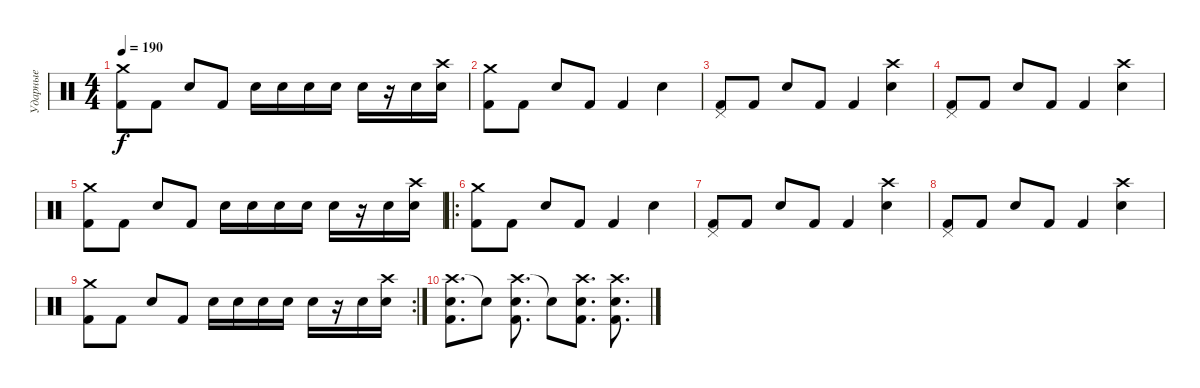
\track ("Ударные" "Ударные") {instrument percussion}
\staff {score}
\articulation defaults
\ts (4 4)
\tempo 190
\clef neutral
\ks c
("Crash medium (hit)" "Kick (hit) 2").8{dy f} "Kick (hit) 2".8 "Electric Snare (hit)".8 "Kick (hit) 2".8 "Electric Snare (hit)".16 "Electric Snare (hit)".16 "Electric Snare (hit)".16 "Electric Snare (hit)".16 "Electric Snare (hit)".16 r.16 "Electric Snare (hit)".16 ("Electric Snare (hit)" "Crash high (hit)").16 |
("Crash medium (hit)" "Kick (hit) 2").8 "Kick (hit) 2".8 "Electric Snare (hit)".8 "Kick (hit) 2".8 "Kick (hit) 2".4 "Electric Snare (hit)".4 |
("Pedal Hi-Hat (hit)" "Kick (hit) 2").8 "Kick (hit) 2".8 "Electric Snare (hit)".8 "Kick (hit) 2".8 "Kick (hit) 2".4 ("Crash high (hit)" "Electric Snare (hit)").4 |
("Pedal Hi-Hat (hit)" "Kick (hit) 2").8 "Kick (hit) 2".8 "Electric Snare (hit)".8 "Kick (hit) 2".8 "Kick (hit) 2".4 ("Crash high (hit)" "Electric Snare (hit)").4 |
("Crash medium (hit)" "Kick (hit) 2").8 "Kick (hit) 2".8 "Electric Snare (hit)".8 "Kick (hit) 2".8 "Electric Snare (hit)".16 "Electric Snare (hit)".16 "Electric Snare (hit)".16 "Electric Snare (hit)".16 "Electric Snare (hit)".16 r.16 "Electric Snare (hit)".16 ("Electric Snare (hit)" "Crash high (hit)").16 |
\ro
("Crash medium (hit)" "Kick (hit) 2").8 "Kick (hit) 2".8 "Electric Snare (hit)".8 "Kick (hit) 2".8 "Kick (hit) 2".4 "Electric Snare (hit)".4 |
("Pedal Hi-Hat (hit)" "Kick (hit) 2").8 "Kick (hit) 2".8 "Electric Snare (hit)".8 "Kick (hit) 2".8 "Kick (hit) 2".4 ("Crash high (hit)" "Electric Snare (hit)").4 |
("Pedal Hi-Hat (hit)" "Kick (hit) 2").8 "Kick (hit) 2".8 "Electric Snare (hit)".8 "Kick (hit) 2".8 "Kick (hit) 2".4 ("Crash high (hit)" "Electric Snare (hit)").4 |
\rc 2
("Crash medium (hit)" "Kick (hit) 2").8 "Kick (hit) 2".8 "Electric Snare (hit)".8 "Kick (hit) 2".8 "Electric Snare (hit)".16 "Electric Snare (hit)".16 "Electric Snare (hit)".16 "Electric Snare (hit)".16 "Electric Snare (hit)".16 r.16 "Electric Snare (hit)".16 ("Electric Snare (hit)" "Crash high (hit)").16 |
("Crash high (hit)" "Electric Snare (hit)" "Kick (hit) 2").8{d} "Snare (hit)"{t}.8 ("Crash high (hit)" "Electric Snare (hit)" "Kick (hit) 2").8{d} "Snare (hit)"{t}.8 ("Crash high (hit)" "Electric Snare (hit)" "Kick (hit) 2").8{d} ("Crash high (hit)" "Electric Snare (hit)" "Kick (hit) 2").8{d}
